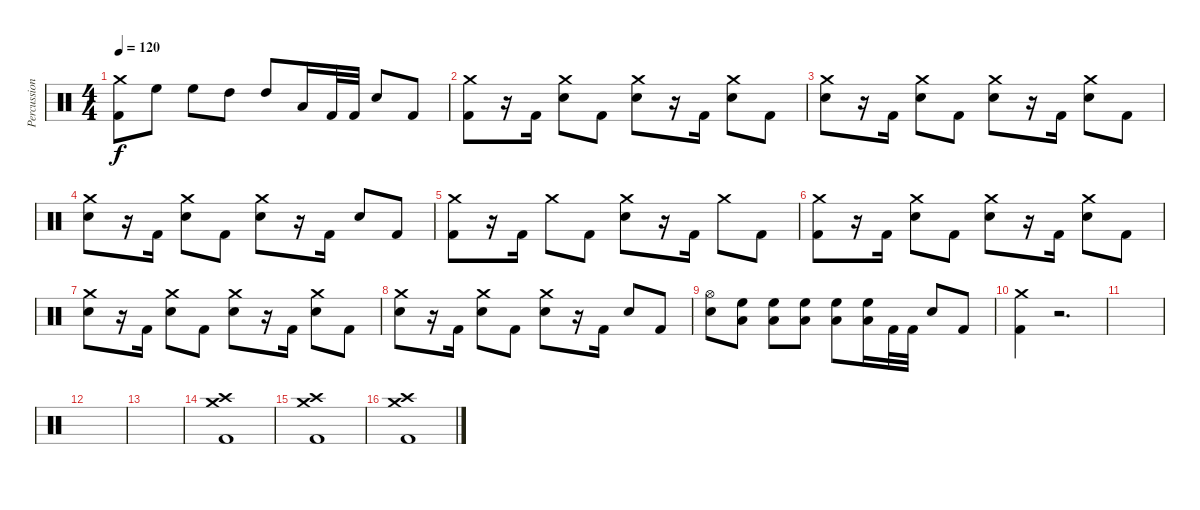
\track ("Percussion" "Percussion") {instrument percussion}
\staff {score}
\articulation defaults
\ts (4 4)
\tempo 120
\clef neutral
\ks c
("Crash medium (hit)" "Kick (hit) 2").8{dy f} "High Floor Tom (hit)".8 "High Floor Tom (hit)".8 "High Tom (hit)".8 "High Tom (hit)".8 "Low Floor Tom (hit)".16 "Kick (hit) 2".32 "Kick (hit) 2".32 "Electric Snare (hit)".8 "Kick (hit) 2".8 |
("Crash medium (hit)" "Kick (hit) 2").8 r.16 "Kick (hit) 2".16 ("Crash medium (hit)" "Electric Snare (hit)").8 "Kick (hit) 2".8 ("Crash medium (hit)" "Electric Snare (hit)").8 r.16 "Kick (hit) 2".16 ("Crash medium (hit)" "Electric Snare (hit)").8 "Kick (hit) 2".8 |
("Crash medium (hit)" "Electric Snare (hit)").8 r.16 "Kick (hit) 2".16 ("Crash medium (hit)" "Electric Snare (hit)").8 "Kick (hit) 2".8 ("Crash medium (hit)" "Electric Snare (hit)").8 r.16 "Kick (hit) 2".16 ("Crash medium (hit)" "Electric Snare (hit)").8 "Kick (hit) 2".8 |
("Crash medium (hit)" "Electric Snare (hit)").8 r.16 "Kick (hit) 2".16 ("Crash medium (hit)" "Electric Snare (hit)").8 "Kick (hit) 2".8 ("Crash medium (hit)" "Electric Snare (hit)").8 r.16 "Kick (hit) 2".16 "Electric Snare (hit)".8 "Kick (hit) 2".8 |
("Crash medium (hit)" "Kick (hit) 2").8 r.16 "Kick (hit) 2".16 "Crash medium (hit)".8 "Kick (hit) 2".8 ("Crash medium (hit)" "Electric Snare (hit)").8 r.16 "Kick (hit) 2".16 "Crash medium (hit)".8 "Kick (hit) 2".8 |
("Crash medium (hit)" "Kick (hit) 2").8 r.16 "Kick (hit) 2".16 ("Crash medium (hit)" "Electric Snare (hit)").8 "Kick (hit) 2".8 ("Crash medium (hit)" "Electric Snare (hit)").8 r.16 "Kick (hit) 2".16 ("Crash medium (hit)" "Electric Snare (hit)").8 "Kick (hit) 2".8 |
("Crash medium (hit)" "Electric Snare (hit)").8 r.16 "Kick (hit) 2".16 ("Crash medium (hit)" "Electric Snare (hit)").8 "Kick (hit) 2".8 ("Crash medium (hit)" "Electric Snare (hit)").8 r.16 "Kick (hit) 2".16 ("Crash medium (hit)" "Electric Snare (hit)").8 "Kick (hit) 2".8 |
("Crash medium (hit)" "Electric Snare (hit)").8 r.16 "Kick (hit) 2".16 ("Crash medium (hit)" "Electric Snare (hit)").8 "Kick (hit) 2".8 ("Crash medium (hit)" "Electric Snare (hit)").8 r.16 "Kick (hit) 2".16 "Electric Snare (hit)".8 "Kick (hit) 2".8 |
("Hi-Hat (open)" "Electric Snare (hit)").8 ("Low Floor Tom (hit)" "High Floor Tom (hit)").8 ("Low Floor Tom (hit)" "High Floor Tom (hit)").8 ("Low Floor Tom (hit)" "High Floor Tom (hit)").8 ("Low Floor Tom (hit)" "High Floor Tom (hit)").8 ("Low Floor Tom (hit)" "High Floor Tom (hit)").16 "Kick (hit) 2".32 "Kick (hit) 2".32 "Electric Snare (hit)".8 "Kick (hit) 2".8 |
("Crash medium (hit)" "Kick (hit) 2").4 r.2{d} |
|
|
|
("Crash medium (hit)" "Crash high (hit)" "Kick (hit) 2").1 |
("Crash medium (hit)" "Crash high (hit)" "Kick (hit) 2").1 |
("Crash medium (hit)" "Crash high (hit)" "Kick (hit) 2").1
